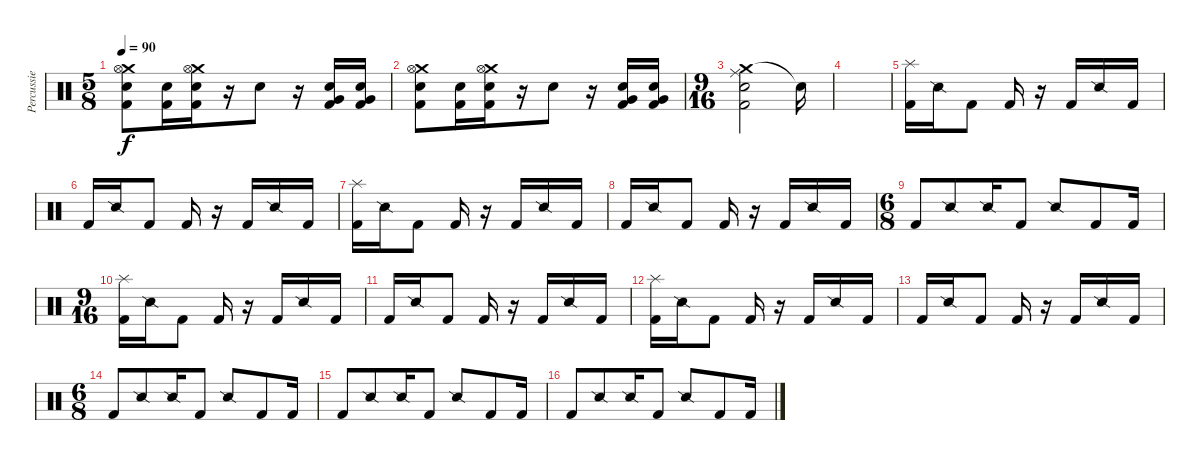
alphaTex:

\track ("Percussie" "Percussie") {instrument percussion}
\staff {score}
\articulation defaults
\ts (5 8)
\tempo 90
\clef neutral
\ks c
("Crash medium (hit)" "Hi-Hat (open)" "Snare (hit) 2" "Kick (hit) 2").8{dy f} ("Snare (hit) 2" "Kick (hit) 2").16 ("Crash medium (hit)" "Hi-Hat (open)" "Snare (hit) 2" "Kick (hit) 2").16 r.16 "Snare (hit) 2".8 r.16 ("Very Low Tom (hit)" "Snare (hit) 2" "Kick (hit) 2").16 ("Very Low Tom (hit)" "Snare (hit) 2" "Kick (hit) 2").16 |
("Crash medium (hit)" "Hi-Hat (open)" "Snare (hit) 2" "Kick (hit) 2").8 ("Snare (hit) 2" "Kick (hit) 2").16 ("Crash medium (hit)" "Hi-Hat (open)" "Snare (hit) 2" "Kick (hit) 2").16 r.16 "Snare (hit) 2".8 r.16 ("Very Low Tom (hit)" "Snare (hit) 2" "Kick (hit) 2").16 ("Very Low Tom (hit)" "Snare (hit) 2" "Kick (hit) 2").16 |
\ts (9 16)
("Crash medium (hit)" "Ride (middle)" "Snare (hit) 2" "Kick (hit) 2").2 "Snare (hit)"{t}.16 |
|
("Splash (hit)" "Kick (hit) 2").16 "Snare (side stick) 2".16 "Kick (hit) 2".8 "Kick (hit) 2".16 r.16 "Kick (hit) 2".16 "Snare (side stick) 2".16 "Kick (hit) 2".16 |
"Kick (hit) 2".16 "Snare (side stick) 2".16 "Kick (hit) 2".8 "Kick (hit) 2".16 r.16 "Kick (hit) 2".16 "Snare (side stick) 2".16 "Kick (hit) 2".16 |
("Splash (hit)" "Kick (hit) 2").16 "Snare (side stick) 2".16 "Kick (hit) 2".8 "Kick (hit) 2".16 r.16 "Kick (hit) 2".16 "Snare (side stick) 2".16 "Kick (hit) 2".16 |
"Kick (hit) 2".16 "Snare (side stick) 2".16 "Kick (hit) 2".8 "Kick (hit) 2".16 r.16 "Kick (hit) 2".16 "Snare (side stick) 2".16 "Kick (hit) 2".16 |
\ts (6 8)
"Kick (hit) 2".8 "Snare (side stick) 2".8 "Snare (side stick) 2".16 "Kick (hit) 2".8 "Snare (side stick) 2".8 "Kick (hit) 2".8 "Kick (hit) 2".16 |
\ts (9 16)
("Splash (hit)" "Kick (hit) 2").16 "Snare (side stick) 2".16 "Kick (hit) 2".8 "Kick (hit) 2".16 r.16 "Kick (hit) 2".16 "Snare (side stick) 2".16 "Kick (hit) 2".16 |
"Kick (hit) 2".16 "Snare (side stick) 2".16 "Kick (hit) 2".8 "Kick (hit) 2".16 r.16 "Kick (hit) 2".16 "Snare (side stick) 2".16 "Kick (hit) 2".16 |
("Splash (hit)" "Kick (hit) 2").16 "Snare (side stick) 2".16 "Kick (hit) 2".8 "Kick (hit) 2".16 r.16 "Kick (hit) 2".16 "Snare (side stick) 2".16 "Kick (hit) 2".16 |
"Kick (hit) 2".16 "Snare (side stick) 2".16 "Kick (hit) 2".8 "Kick (hit) 2".16 r.16 "Kick (hit) 2".16 "Snare (side stick) 2".16 "Kick (hit) 2".16 |
\ts (6 8)
"Kick (hit) 2".8 "Snare (side stick) 2".8 "Snare (side stick) 2".16 "Kick (hit) 2".8 "Snare (side stick) 2".8 "Kick (hit) 2".8 "Kick (hit) 2".16 |
"Kick (hit) 2".8 "Snare (side stick) 2".8 "Snare (side stick) 2".16 "Kick (hit) 2".8 "Snare (side stick) 2".8 "Kick (hit) 2".8 "Kick (hit) 2".16 |
"Kick (hit) 2".8 "Snare (side stick) 2".8 "Snare (side stick) 2".16 "Kick (hit) 2".8 "Snare (side stick) 2".8 "Kick (hit) 2".8 "Kick (hit) 2".16
